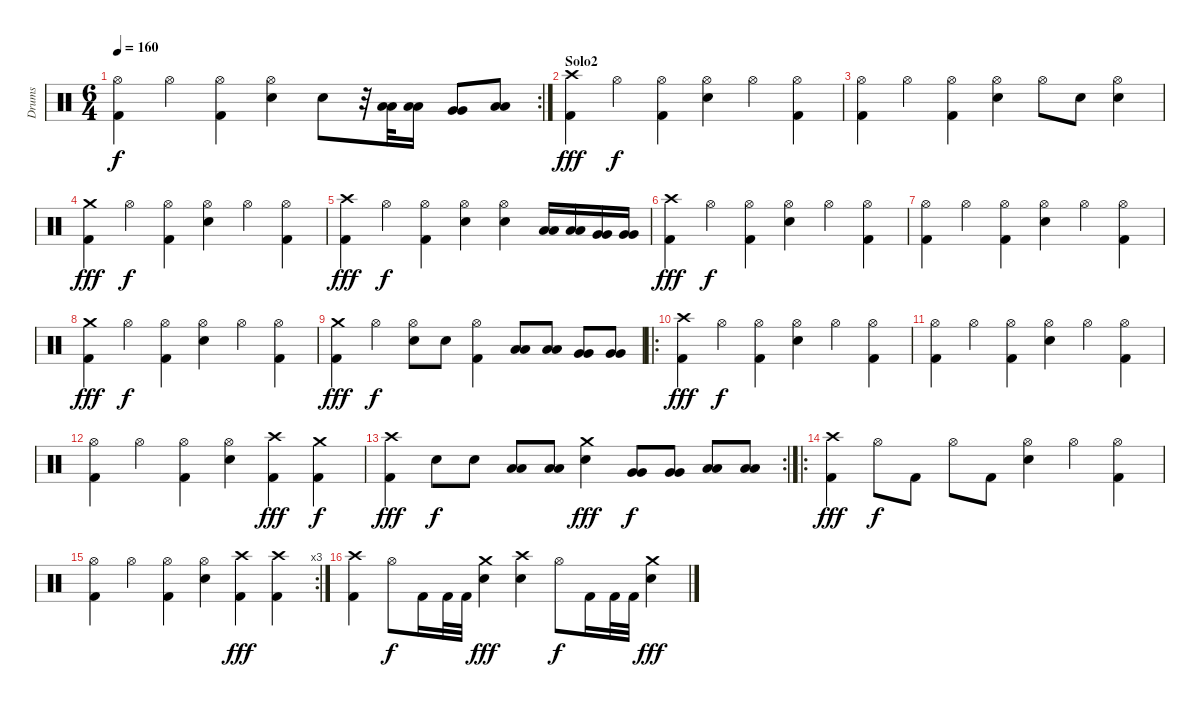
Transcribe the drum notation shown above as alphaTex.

\track ("Drums" "Drums") {instrument percussion}
\staff {score}
\articulation defaults
\rc 2
\ts (6 4)
\tempo 160
\clef neutral
\ks c
("Kick (hit) 2" "Hi-Hat (open)").4{dy f} "Hi-Hat (open)".4 ("Kick (hit) 2" "Hi-Hat (open)").4 ("Electric Snare (hit)" "Hi-Hat (open)").4 "Electric Snare (hit)".8 r.32 ("Low Tom (hit)" "Low Tom (hit)").32 ("Low Tom (hit)" "Low Tom (hit)").16 ("Very Low Tom (hit)" "Very Low Tom (hit)").8 ("Low Floor Tom (hit)" "Low Floor Tom (hit)").8 |
\section ("" "Solo2")
("Kick (hit) 2" "Crash high (hit)").4{dy fff} "Hi-Hat (open)".4{dy f} ("Kick (hit) 2" "Hi-Hat (open)").4 ("Electric Snare (hit)" "Hi-Hat (open)").4 "Hi-Hat (open)".4 ("Kick (hit) 2" "Hi-Hat (open)").4 |
("Kick (hit) 2" "Hi-Hat (open)").4 "Hi-Hat (open)".4 ("Kick (hit) 2" "Hi-Hat (open)").4 ("Electric Snare (hit)" "Hi-Hat (open)").4 "Hi-Hat (open)".8 "Electric Snare (hit)".8 ("Electric Snare (hit)" "Hi-Hat (open)").4 |
("Kick (hit) 2" "Crash medium (hit)").4{dy fff} "Hi-Hat (open)".4{dy f} ("Kick (hit) 2" "Hi-Hat (open)").4 ("Electric Snare (hit)" "Hi-Hat (open)").4 "Hi-Hat (open)".4 ("Kick (hit) 2" "Hi-Hat (open)").4 |
("Kick (hit) 2" "Crash high (hit)").4{dy fff} "Hi-Hat (open)".4{dy f} ("Kick (hit) 2" "Hi-Hat (open)").4 ("Electric Snare (hit)" "Hi-Hat (open)").4 ("Electric Snare (hit)" "Hi-Hat (open)").4 ("Low Tom (hit)" "Low Tom (hit)").16 ("Low Tom (hit)" "Low Tom (hit)").16 ("Very Low Tom (hit)" "Very Low Tom (hit)").16 ("Very Low Tom (hit)" "Very Low Tom (hit)").16 |
("Kick (hit) 2" "Crash high (hit)").4{dy fff} "Hi-Hat (open)".4{dy f} ("Kick (hit) 2" "Hi-Hat (open)").4 ("Electric Snare (hit)" "Hi-Hat (open)").4 "Hi-Hat (open)".4 ("Kick (hit) 2" "Hi-Hat (open)").4 |
("Kick (hit) 2" "Hi-Hat (open)").4 "Hi-Hat (open)".4 ("Kick (hit) 2" "Hi-Hat (open)").4 ("Electric Snare (hit)" "Hi-Hat (open)").4 "Hi-Hat (open)".4 ("Kick (hit) 2" "Hi-Hat (open)").4 |
("Kick (hit) 2" "Crash medium (hit)").4{dy fff} "Hi-Hat (open)".4{dy f} ("Kick (hit) 2" "Hi-Hat (open)").4 ("Electric Snare (hit)" "Hi-Hat (open)").4 "Hi-Hat (open)".4 ("Kick (hit) 2" "Hi-Hat (open)").4 |
("Kick (hit) 2" "Crash medium (hit)").4{dy fff} "Hi-Hat (open)".4{dy f} ("Electric Snare (hit)" "Hi-Hat (open)").8 "Electric Snare (hit)".8 ("Kick (hit) 2" "Hi-Hat (open)").4 ("Low Tom (hit)" "Low Tom (hit)").8 ("Low Tom (hit)" "Low Tom (hit)").8 ("Very Low Tom (hit)" "Very Low Tom (hit)").8 ("Very Low Tom (hit)" "Very Low Tom (hit)").8 |
\ro
("Kick (hit) 2" "Crash high (hit)").4{dy fff} "Hi-Hat (open)".4{dy f} ("Kick (hit) 2" "Hi-Hat (open)").4 ("Electric Snare (hit)" "Hi-Hat (open)").4 "Hi-Hat (open)".4 ("Kick (hit) 2" "Hi-Hat (open)").4 |
("Kick (hit) 2" "Hi-Hat (open)").4 "Hi-Hat (open)".4 ("Kick (hit) 2" "Hi-Hat (open)").4 ("Electric Snare (hit)" "Hi-Hat (open)").4 "Hi-Hat (open)".4 ("Kick (hit) 2" "Hi-Hat (open)").4 |
("Kick (hit) 2" "Hi-Hat (open)").4 "Hi-Hat (open)".4 ("Kick (hit) 2" "Hi-Hat (open)").4 ("Electric Snare (hit)" "Hi-Hat (open)").4 ("Kick (hit) 2" "Crash high (hit)").4{dy fff} ("Kick (hit) 2" "Crash medium (hit)").4{dy f} |
\rc 2
("Kick (hit) 2" "Crash high (hit)").4{dy fff} "Electric Snare (hit)".8{dy f} "Electric Snare (hit)".8 ("Low Tom (hit)" "Low Tom (hit)").8 ("Low Tom (hit)" "Low Tom (hit)").8 ("Electric Snare (hit)" "Crash medium (hit)").4{dy fff} ("Very Low Tom (hit)" "Very Low Tom (hit)").8{dy f} ("Very Low Tom (hit)" "Very Low Tom (hit)").8 ("Low Floor Tom (hit)" "Low Floor Tom (hit)").8 ("Low Floor Tom (hit)" "Low Floor Tom (hit)").8 |
\ro
("Kick (hit) 2" "Crash high (hit)").4{dy fff} "Hi-Hat (open)".8{dy f} "Kick (hit) 2".8 "Hi-Hat (open)".8 "Kick (hit) 2".8 ("Electric Snare (hit)" "Hi-Hat (open)").4 "Hi-Hat (open)".4 ("Kick (hit) 2" "Hi-Hat (open)").4 |
\rc 3
("Kick (hit) 2" "Hi-Hat (open)").4 "Hi-Hat (open)".4 ("Kick (hit) 2" "Hi-Hat (open)").4 ("Electric Snare (hit)" "Hi-Hat (open)").4 ("Kick (hit) 2" "Crash high (hit)").4{dy fff} ("Kick (hit) 2" "Crash high (hit)").4 |
("Kick (hit) 2" "Crash high (hit)").4 "Hi-Hat (open)".8{dy f} "Kick (hit) 2".16 "Kick (hit) 2".32 "Kick (hit) 2".32 ("Electric Snare (hit)" "Crash medium (hit)").4{dy fff} ("Electric Snare (hit)" "Crash high (hit)").4 "Hi-Hat (open)".8{dy f} "Kick (hit) 2".16 "Kick (hit) 2".32 "Kick (hit) 2".32 ("Electric Snare (hit)" "Crash medium (hit)").4{dy fff}
